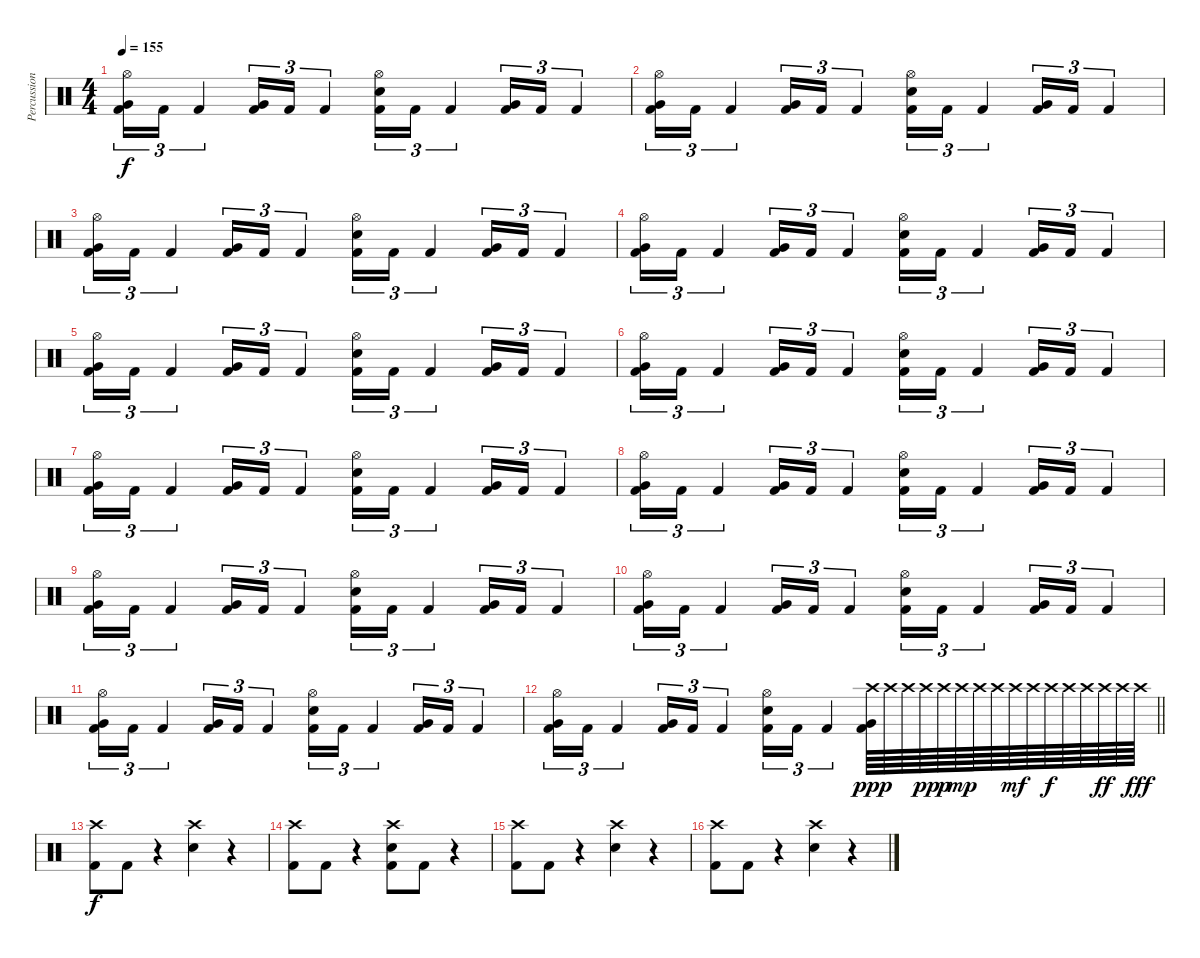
\track ("Percussion" "Percussion") {instrument percussion}
\staff {score}
\articulation defaults
\ts (4 4)
\tempo 155
\clef neutral
\ks c
("Hi-Hat (open)" "Very Low Tom (hit)" "Kick (hit) 2").16{tu (3 2) dy f} "Kick (hit) 2".16{tu (3 2)} "Kick (hit) 2".4{tu (3 2)} ("Very Low Tom (hit)" "Kick (hit) 2").16{tu (3 2)} "Kick (hit) 2".16{tu (3 2)} "Kick (hit) 2".4{tu (3 2)} ("Hi-Hat (open)" "Electric Snare (hit)" "Kick (hit) 2").16{tu (3 2)} "Kick (hit) 2".16{tu (3 2)} "Kick (hit) 2".4{tu (3 2)} ("Very Low Tom (hit)" "Kick (hit) 2").16{tu (3 2)} "Kick (hit) 2".16{tu (3 2)} "Kick (hit) 2".4{tu (3 2)} |
("Hi-Hat (open)" "Very Low Tom (hit)" "Kick (hit) 2").16{tu (3 2)} "Kick (hit) 2".16{tu (3 2)} "Kick (hit) 2".4{tu (3 2)} ("Very Low Tom (hit)" "Kick (hit) 2").16{tu (3 2)} "Kick (hit) 2".16{tu (3 2)} "Kick (hit) 2".4{tu (3 2)} ("Hi-Hat (open)" "Electric Snare (hit)" "Kick (hit) 2").16{tu (3 2)} "Kick (hit) 2".16{tu (3 2)} "Kick (hit) 2".4{tu (3 2)} ("Very Low Tom (hit)" "Kick (hit) 2").16{tu (3 2)} "Kick (hit) 2".16{tu (3 2)} "Kick (hit) 2".4{tu (3 2)} |
("Hi-Hat (open)" "Very Low Tom (hit)" "Kick (hit) 2").16{tu (3 2)} "Kick (hit) 2".16{tu (3 2)} "Kick (hit) 2".4{tu (3 2)} ("Very Low Tom (hit)" "Kick (hit) 2").16{tu (3 2)} "Kick (hit) 2".16{tu (3 2)} "Kick (hit) 2".4{tu (3 2)} ("Hi-Hat (open)" "Electric Snare (hit)" "Kick (hit) 2").16{tu (3 2)} "Kick (hit) 2".16{tu (3 2)} "Kick (hit) 2".4{tu (3 2)} ("Very Low Tom (hit)" "Kick (hit) 2").16{tu (3 2)} "Kick (hit) 2".16{tu (3 2)} "Kick (hit) 2".4{tu (3 2)} |
("Hi-Hat (open)" "Very Low Tom (hit)" "Kick (hit) 2").16{tu (3 2)} "Kick (hit) 2".16{tu (3 2)} "Kick (hit) 2".4{tu (3 2)} ("Very Low Tom (hit)" "Kick (hit) 2").16{tu (3 2)} "Kick (hit) 2".16{tu (3 2)} "Kick (hit) 2".4{tu (3 2)} ("Hi-Hat (open)" "Electric Snare (hit)" "Kick (hit) 2").16{tu (3 2)} "Kick (hit) 2".16{tu (3 2)} "Kick (hit) 2".4{tu (3 2)} ("Very Low Tom (hit)" "Kick (hit) 2").16{tu (3 2)} "Kick (hit) 2".16{tu (3 2)} "Kick (hit) 2".4{tu (3 2)} |
("Hi-Hat (open)" "Very Low Tom (hit)" "Kick (hit) 2").16{tu (3 2)} "Kick (hit) 2".16{tu (3 2)} "Kick (hit) 2".4{tu (3 2)} ("Very Low Tom (hit)" "Kick (hit) 2").16{tu (3 2)} "Kick (hit) 2".16{tu (3 2)} "Kick (hit) 2".4{tu (3 2)} ("Hi-Hat (open)" "Electric Snare (hit)" "Kick (hit) 2").16{tu (3 2)} "Kick (hit) 2".16{tu (3 2)} "Kick (hit) 2".4{tu (3 2)} ("Very Low Tom (hit)" "Kick (hit) 2").16{tu (3 2)} "Kick (hit) 2".16{tu (3 2)} "Kick (hit) 2".4{tu (3 2)} |
("Hi-Hat (open)" "Very Low Tom (hit)" "Kick (hit) 2").16{tu (3 2)} "Kick (hit) 2".16{tu (3 2)} "Kick (hit) 2".4{tu (3 2)} ("Very Low Tom (hit)" "Kick (hit) 2").16{tu (3 2)} "Kick (hit) 2".16{tu (3 2)} "Kick (hit) 2".4{tu (3 2)} ("Hi-Hat (open)" "Electric Snare (hit)" "Kick (hit) 2").16{tu (3 2)} "Kick (hit) 2".16{tu (3 2)} "Kick (hit) 2".4{tu (3 2)} ("Very Low Tom (hit)" "Kick (hit) 2").16{tu (3 2)} "Kick (hit) 2".16{tu (3 2)} "Kick (hit) 2".4{tu (3 2)} |
("Hi-Hat (open)" "Very Low Tom (hit)" "Kick (hit) 2").16{tu (3 2)} "Kick (hit) 2".16{tu (3 2)} "Kick (hit) 2".4{tu (3 2)} ("Very Low Tom (hit)" "Kick (hit) 2").16{tu (3 2)} "Kick (hit) 2".16{tu (3 2)} "Kick (hit) 2".4{tu (3 2)} ("Hi-Hat (open)" "Electric Snare (hit)" "Kick (hit) 2").16{tu (3 2)} "Kick (hit) 2".16{tu (3 2)} "Kick (hit) 2".4{tu (3 2)} ("Very Low Tom (hit)" "Kick (hit) 2").16{tu (3 2)} "Kick (hit) 2".16{tu (3 2)} "Kick (hit) 2".4{tu (3 2)} |
("Hi-Hat (open)" "Very Low Tom (hit)" "Kick (hit) 2").16{tu (3 2)} "Kick (hit) 2".16{tu (3 2)} "Kick (hit) 2".4{tu (3 2)} ("Very Low Tom (hit)" "Kick (hit) 2").16{tu (3 2)} "Kick (hit) 2".16{tu (3 2)} "Kick (hit) 2".4{tu (3 2)} ("Hi-Hat (open)" "Electric Snare (hit)" "Kick (hit) 2").16{tu (3 2)} "Kick (hit) 2".16{tu (3 2)} "Kick (hit) 2".4{tu (3 2)} ("Very Low Tom (hit)" "Kick (hit) 2").16{tu (3 2)} "Kick (hit) 2".16{tu (3 2)} "Kick (hit) 2".4{tu (3 2)} |
("Hi-Hat (open)" "Very Low Tom (hit)" "Kick (hit) 2").16{tu (3 2)} "Kick (hit) 2".16{tu (3 2)} "Kick (hit) 2".4{tu (3 2)} ("Very Low Tom (hit)" "Kick (hit) 2").16{tu (3 2)} "Kick (hit) 2".16{tu (3 2)} "Kick (hit) 2".4{tu (3 2)} ("Hi-Hat (open)" "Electric Snare (hit)" "Kick (hit) 2").16{tu (3 2)} "Kick (hit) 2".16{tu (3 2)} "Kick (hit) 2".4{tu (3 2)} ("Very Low Tom (hit)" "Kick (hit) 2").16{tu (3 2)} "Kick (hit) 2".16{tu (3 2)} "Kick (hit) 2".4{tu (3 2)} |
("Hi-Hat (open)" "Very Low Tom (hit)" "Kick (hit) 2").16{tu (3 2)} "Kick (hit) 2".16{tu (3 2)} "Kick (hit) 2".4{tu (3 2)} ("Very Low Tom (hit)" "Kick (hit) 2").16{tu (3 2)} "Kick (hit) 2".16{tu (3 2)} "Kick (hit) 2".4{tu (3 2)} ("Hi-Hat (open)" "Electric Snare (hit)" "Kick (hit) 2").16{tu (3 2)} "Kick (hit) 2".16{tu (3 2)} "Kick (hit) 2".4{tu (3 2)} ("Very Low Tom (hit)" "Kick (hit) 2").16{tu (3 2)} "Kick (hit) 2".16{tu (3 2)} "Kick (hit) 2".4{tu (3 2)} |
("Hi-Hat (open)" "Very Low Tom (hit)" "Kick (hit) 2").16{tu (3 2)} "Kick (hit) 2".16{tu (3 2)} "Kick (hit) 2".4{tu (3 2)} ("Very Low Tom (hit)" "Kick (hit) 2").16{tu (3 2)} "Kick (hit) 2".16{tu (3 2)} "Kick (hit) 2".4{tu (3 2)} ("Hi-Hat (open)" "Electric Snare (hit)" "Kick (hit) 2").16{tu (3 2)} "Kick (hit) 2".16{tu (3 2)} "Kick (hit) 2".4{tu (3 2)} ("Very Low Tom (hit)" "Kick (hit) 2").16{tu (3 2)} "Kick (hit) 2".16{tu (3 2)} "Kick (hit) 2".4{tu (3 2)} |
\barLineRight lightlight
("Hi-Hat (open)" "Very Low Tom (hit)" "Kick (hit) 2").16{tu (3 2)} "Kick (hit) 2".16{tu (3 2)} "Kick (hit) 2".4{tu (3 2)} ("Very Low Tom (hit)" "Kick (hit) 2").16{tu (3 2)} "Kick (hit) 2".16{tu (3 2)} "Kick (hit) 2".4{tu (3 2)} ("Hi-Hat (open)" "Electric Snare (hit)" "Kick (hit) 2").16{tu (3 2)} "Kick (hit) 2".16{tu (3 2)} "Kick (hit) 2".4{tu (3 2)} ("Crash high (hit)" "Very Low Tom (hit)" "Kick (hit) 2").64{dy ppp} "Crash high (hit)".64 "Crash high (hit)".64 "Crash high (hit)".64{dy pp} "Crash high (hit)".64{dy p} "Crash high (hit)".64{dy mp} "Crash high (hit)".64 "Crash high (hit)".64 "Crash high (hit)".64{dy mf} "Crash high (hit)".64 "Crash high (hit)".64{dy f} "Crash high (hit)".64 "Crash high (hit)".64 "Crash high (hit)".64{dy ff} "Crash high (hit)".64 "Crash high (hit)".64{dy fff} |
("Crash high (hit)" "Kick (hit) 2").8{dy f} "Kick (hit) 2".8 r.4 ("Crash high (hit)" "Electric Snare (hit)").4 r.4 |
("Crash high (hit)" "Kick (hit) 2").8 "Kick (hit) 2".8 r.4 ("Crash high (hit)" "Electric Snare (hit)" "Kick (hit) 2").8 "Kick (hit) 2".8 r.4 |
("Crash high (hit)" "Kick (hit) 2").8 "Kick (hit) 2".8 r.4 ("Crash high (hit)" "Electric Snare (hit)").4 r.4 |
("Crash high (hit)" "Kick (hit) 2").8 "Kick (hit) 2".8 r.4 ("Crash high (hit)" "Electric Snare (hit)").4 r.4
